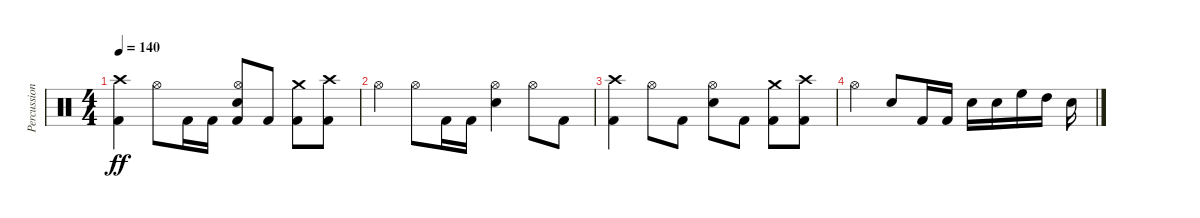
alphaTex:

\track ("Percussion" "Percussion") {instrument percussion}
\staff {score}
\articulation defaults
\ts (4 4)
\tempo 140
\clef neutral
\ks c
("Crash high (hit)" "Kick (hit) 2").4{dy ff} "Hi-Hat (open)".8 "Kick (hit) 2".16 "Kick (hit) 2".16 ("Hi-Hat (open)" "Electric Snare (hit)" "Kick (hit) 2").8 "Kick (hit) 2".8 ("Crash medium (hit)" "Kick (hit) 2").8 ("Crash high (hit)" "Kick (hit) 2").8 |
"Hi-Hat (open)".4 "Hi-Hat (open)".8 "Kick (hit) 2".16 "Kick (hit) 2".16 ("Hi-Hat (open)" "Electric Snare (hit)").4 "Hi-Hat (open)".8 "Kick (hit) 2".8 |
("Crash high (hit)" "Kick (hit) 2").4 "Hi-Hat (open)".8 "Kick (hit) 2".8 ("Hi-Hat (open)" "Electric Snare (hit)").8 "Kick (hit) 2".8 ("Crash medium (hit)" "Kick (hit) 2").8 ("Crash high (hit)" "Kick (hit) 2").8 |
"Hi-Hat (open)".4 "Electric Snare (hit)".8 "Kick (hit) 2".16 "Kick (hit) 2".16 "Electric Snare (hit)".16 "Electric Snare (hit)".16 "High Floor Tom (hit)".16 "High Tom (hit)".16 "Electric Snare (hit)".16
